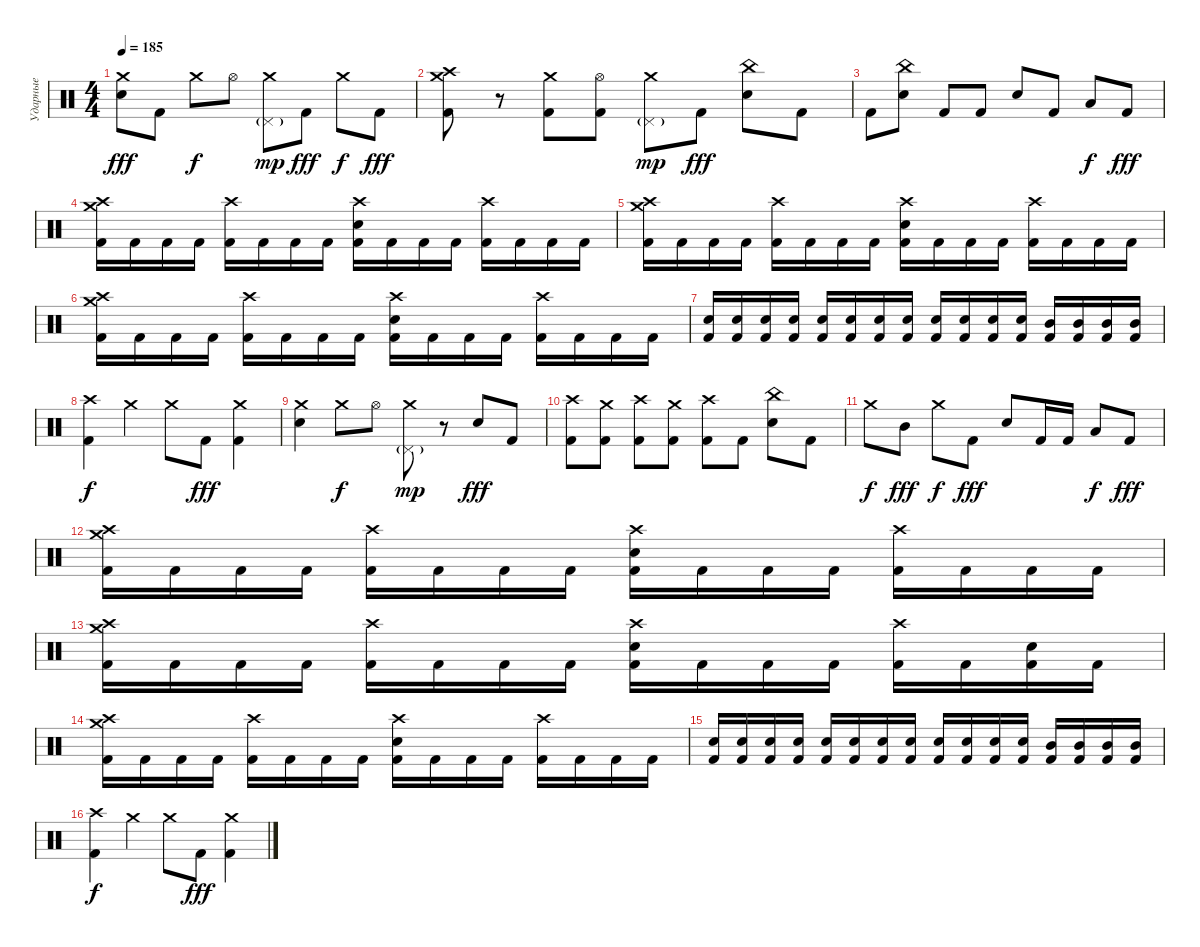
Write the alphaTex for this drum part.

\track ("Ударные" "Ударные") {instrument percussion}
\staff {score}
\articulation defaults
\ts (4 4)
\tempo 185
\clef neutral
\ks c
("Crash medium (hit)" "Electric Snare (hit)").8{dy fff} "Kick (hit) 2".8 "Crash medium (hit)".8{dy f} "Hi-Hat (open)".8 ("Crash medium (hit)" "Pedal Hi-Hat (hit)"{g}).8{dy mp} "Kick (hit) 2".8{dy fff} "Crash medium (hit)".8{dy f} "Kick (hit) 2".8{dy fff} |
("Crash medium (hit)" "Crash high (hit)" "Kick (hit) 2").8 r.8 ("Crash medium (hit)" "Kick (hit) 2").8 ("Hi-Hat (open)" "Kick (hit) 2").8 ("Crash medium (hit)" "Pedal Hi-Hat (hit)"{g}).8{dy mp} "Kick (hit) 2".8{dy fff} ("China (hit)" "Electric Snare (hit)").8 "Kick (hit) 2".8 |
"Kick (hit) 2".8 ("China (hit)" "Electric Snare (hit)").8 "Kick (hit) 2".8 "Kick (hit) 2".8 "Electric Snare (hit)".8 "Kick (hit) 2".8 "Low Floor Tom (hit)".8{dy f} "Kick (hit) 2".8{dy fff} |
("Crash medium (hit)" "Crash high (hit)" "Kick (hit) 2").16 "Kick (hit) 2".16 "Kick (hit) 2".16 "Kick (hit) 2".16 ("Crash high (hit)" "Kick (hit) 2").16 "Kick (hit) 2".16 "Kick (hit) 2".16 "Kick (hit) 2".16 ("Crash high (hit)" "Electric Snare (hit)" "Kick (hit) 2").16 "Kick (hit) 2".16 "Kick (hit) 2".16 "Kick (hit) 2".16 ("Crash high (hit)" "Kick (hit) 2").16 "Kick (hit) 2".16 "Kick (hit) 2".16 "Kick (hit) 2".16 |
("Crash medium (hit)" "Crash high (hit)" "Kick (hit) 2").16 "Kick (hit) 2".16 "Kick (hit) 2".16 "Kick (hit) 2".16 ("Crash high (hit)" "Kick (hit) 2").16 "Kick (hit) 2".16 "Kick (hit) 2".16 "Kick (hit) 2".16 ("Crash high (hit)" "Electric Snare (hit)" "Kick (hit) 2").16 "Kick (hit) 2".16 "Kick (hit) 2".16 "Kick (hit) 2".16 ("Crash high (hit)" "Kick (hit) 2").16 "Kick (hit) 2".16 "Kick (hit) 2".16 "Kick (hit) 2".16 |
("Crash medium (hit)" "Crash high (hit)" "Kick (hit) 2").16 "Kick (hit) 2".16 "Kick (hit) 2".16 "Kick (hit) 2".16 ("Crash high (hit)" "Kick (hit) 2").16 "Kick (hit) 2".16 "Kick (hit) 2".16 "Kick (hit) 2".16 ("Crash high (hit)" "Electric Snare (hit)" "Kick (hit) 2").16 "Kick (hit) 2".16 "Kick (hit) 2".16 "Kick (hit) 2".16 ("Crash high (hit)" "Kick (hit) 2").16 "Kick (hit) 2".16 "Kick (hit) 2".16 "Kick (hit) 2".16 |
("Electric Snare (hit)" "Kick (hit) 2").16 ("Electric Snare (hit)" "Kick (hit) 2").16 ("Electric Snare (hit)" "Kick (hit) 2").16 ("Electric Snare (hit)" "Kick (hit) 2").16 ("Electric Snare (hit)" "Kick (hit) 2").16 ("Electric Snare (hit)" "Kick (hit) 2").16 ("Electric Snare (hit)" "Kick (hit) 2").16 ("Electric Snare (hit)" "Kick (hit) 2").16 ("Electric Snare (hit)" "Kick (hit) 2").16 ("Electric Snare (hit)" "Kick (hit) 2").16 ("Electric Snare (hit)" "Kick (hit) 2").16 ("Electric Snare (hit)" "Kick (hit) 2").16 ("Mid Tom (hit)" "Kick (hit) 2").16 ("Mid Tom (hit)" "Kick (hit) 2").16 ("Mid Tom (hit)" "Kick (hit) 2").16 ("Mid Tom (hit)" "Kick (hit) 2").16 |
("Crash high (hit)" "Kick (hit) 2").4{dy f} "Crash medium (hit)".4 "Crash medium (hit)".8 "Kick (hit) 2".8{dy fff} ("Crash medium (hit)" "Kick (hit) 2").4 |
("Crash medium (hit)" "Electric Snare (hit)").4 "Crash medium (hit)".8{dy f} "Hi-Hat (open)".8 ("Crash medium (hit)" "Pedal Hi-Hat (hit)"{g}).8{dy mp} r.8 "Electric Snare (hit)".8{dy fff} "Kick (hit) 2".8 |
("Crash high (hit)" "Kick (hit) 2").8 ("Crash medium (hit)" "Kick (hit) 2").8 ("Crash high (hit)" "Kick (hit) 2").8 ("Crash medium (hit)" "Kick (hit) 2").8 ("Crash high (hit)" "Kick (hit) 2").8 "Kick (hit) 2".8 ("China (hit)" "Electric Snare (hit)").8 "Kick (hit) 2".8 |
"Crash medium (hit)".8{dy f} "Mid Tom (hit)".8{dy fff} "Crash medium (hit)".8{dy f} "Kick (hit) 2".8{dy fff} "Electric Snare (hit)".8 "Kick (hit) 2".16 "Kick (hit) 2".16 "Low Floor Tom (hit)".8{dy f} "Kick (hit) 2".8{dy fff} |
("Crash medium (hit)" "Crash high (hit)" "Kick (hit) 2").16 "Kick (hit) 2".16 "Kick (hit) 2".16 "Kick (hit) 2".16 ("Crash high (hit)" "Kick (hit) 2").16 "Kick (hit) 2".16 "Kick (hit) 2".16 "Kick (hit) 2".16 ("Crash high (hit)" "Electric Snare (hit)" "Kick (hit) 2").16 "Kick (hit) 2".16 "Kick (hit) 2".16 "Kick (hit) 2".16 ("Crash high (hit)" "Kick (hit) 2").16 "Kick (hit) 2".16 "Kick (hit) 2".16 "Kick (hit) 2".16 |
("Crash medium (hit)" "Crash high (hit)" "Kick (hit) 2").16 "Kick (hit) 2".16 "Kick (hit) 2".16 "Kick (hit) 2".16 ("Crash high (hit)" "Kick (hit) 2").16 "Kick (hit) 2".16 "Kick (hit) 2".16 "Kick (hit) 2".16 ("Crash high (hit)" "Electric Snare (hit)" "Kick (hit) 2").16 "Kick (hit) 2".16 "Kick (hit) 2".16 "Kick (hit) 2".16 ("Crash high (hit)" "Kick (hit) 2").16 "Kick (hit) 2".16 ("Electric Snare (hit)" "Kick (hit) 2").16 "Kick (hit) 2".16 |
("Crash medium (hit)" "Crash high (hit)" "Kick (hit) 2").16 "Kick (hit) 2".16 "Kick (hit) 2".16 "Kick (hit) 2".16 ("Crash high (hit)" "Kick (hit) 2").16 "Kick (hit) 2".16 "Kick (hit) 2".16 "Kick (hit) 2".16 ("Crash high (hit)" "Electric Snare (hit)" "Kick (hit) 2").16 "Kick (hit) 2".16 "Kick (hit) 2".16 "Kick (hit) 2".16 ("Crash high (hit)" "Kick (hit) 2").16 "Kick (hit) 2".16 "Kick (hit) 2".16 "Kick (hit) 2".16 |
("Electric Snare (hit)" "Kick (hit) 2").16 ("Electric Snare (hit)" "Kick (hit) 2").16 ("Electric Snare (hit)" "Kick (hit) 2").16 ("Electric Snare (hit)" "Kick (hit) 2").16 ("Electric Snare (hit)" "Kick (hit) 2").16 ("Electric Snare (hit)" "Kick (hit) 2").16 ("Electric Snare (hit)" "Kick (hit) 2").16 ("Electric Snare (hit)" "Kick (hit) 2").16 ("Electric Snare (hit)" "Kick (hit) 2").16 ("Electric Snare (hit)" "Kick (hit) 2").16 ("Electric Snare (hit)" "Kick (hit) 2").16 ("Electric Snare (hit)" "Kick (hit) 2").16 ("Mid Tom (hit)" "Kick (hit) 2").16 ("Mid Tom (hit)" "Kick (hit) 2").16 ("Mid Tom (hit)" "Kick (hit) 2").16 ("Mid Tom (hit)" "Kick (hit) 2").16 |
("Crash high (hit)" "Kick (hit) 2").4{dy f} "Crash medium (hit)".4 "Crash medium (hit)".8 "Kick (hit) 2".8{dy fff} ("Crash medium (hit)" "Kick (hit) 2").4
